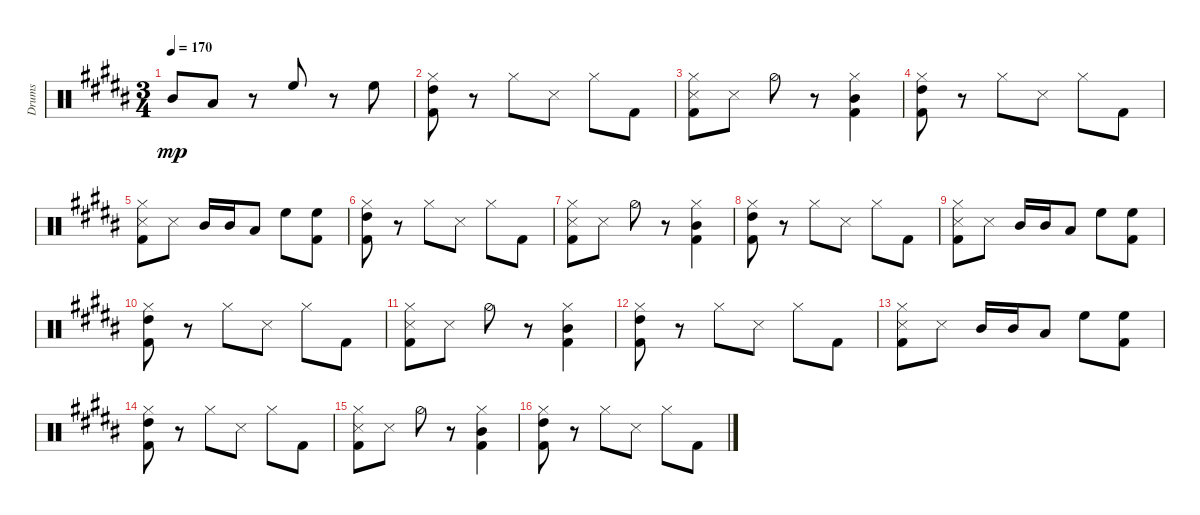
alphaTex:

\defaultSystemsLayout 4
\bracketExtendMode groupsimilarinstruments
\otherSystemsTrackNameOrientation horizontal
\track ("Drumkit" "Drums") {instrument percussion}
\staff {score}
\articulation defaults
\ts (3 4)
\tempo 170
\clef neutral
\ks b "Mid Tom (hit)"{acc bb}.8{dy mp beam Up} "Low Tom (hit)"{acc bb}.8{beam Up}
r.8{beam Up} "High Floor Tom (hit)"{acc bb}.8{beam Down} r.8{beam Down} "High Floor Tom (hit)"{acc bb}.8{beam Down} |
("High Tom (hit)"{acc bb} "Kick (hit) 2"{acc bb} "Hi-Hat (closed)"{acc bb}).8{beam Down} r.8{beam Down} "Hi-Hat (closed)"{acc bb}.8{beam Down} "Snare (side stick) 3"{acc bb}.8{beam Down} "Hi-Hat (closed)"{acc bb}.8{beam Down} "Kick (hit) 2"{acc bb}.8{beam Down} |
("Hi-Hat (closed)"{acc bb} "Snare (side stick) 3"{acc bb} "Kick (hit) 2"{acc bb}).8{beam Down} "Snare (side stick) 3"{acc bb}.8{beam Down} "Hi-Hat (half)"{acc bb}.8{beam Down} r.8{beam Down} ("Hi-Hat (closed)"{acc bb} "Kick (hit) 2"{acc bb} "Mid Tom (hit)"{acc bb}).4{beam Down} |
("High Tom (hit)"{acc bb} "Kick (hit) 2"{acc bb} "Hi-Hat (closed)"{acc bb}).8{beam Down} r.8{beam Down} "Hi-Hat (closed)"{acc bb}.8{beam Down} "Snare (side stick) 3"{acc bb}.8{beam Down} "Hi-Hat (closed)"{acc bb}.8{beam Down} "Kick (hit) 2"{acc bb}.8{beam Down} |
("Hi-Hat (closed)"{acc bb} "Snare (side stick) 3"{acc bb} "Kick (hit) 2"{acc bb}).8{beam Down} "Snare (side stick) 3"{acc bb}.8{beam Down} "Mid Tom (hit)"{acc bb}.16{beam Up} "Mid Tom (hit)"{acc bb}.16{beam Up} "Low Tom (hit)"{acc bb}.8{beam Up} "High Floor Tom (hit)"{acc bb}.8{beam Down} ("High Floor Tom (hit)"{acc bb} "Kick (hit) 2"{acc bb}).8{beam Down} |
("High Tom (hit)"{acc bb} "Kick (hit) 2"{acc bb} "Hi-Hat (closed)"{acc bb}).8{beam Down} r.8{beam Down} "Hi-Hat (closed)"{acc bb}.8{beam Down} "Snare (side stick) 3"{acc bb}.8{beam Down} "Hi-Hat (closed)"{acc bb}.8{beam Down} "Kick (hit) 2"{acc bb}.8{beam Down} |
("Hi-Hat (closed)"{acc bb} "Snare (side stick) 3"{acc bb} "Kick (hit) 2"{acc bb}).8{beam Down} "Snare (side stick) 3"{acc bb}.8{beam Down} "Hi-Hat (half)"{acc bb}.8{beam Down} r.8{beam Down} ("Hi-Hat (closed)"{acc bb} "Kick (hit) 2"{acc bb} "Mid Tom (hit)"{acc bb}).4{beam Down} |
("High Tom (hit)"{acc bb} "Kick (hit) 2"{acc bb} "Hi-Hat (closed)"{acc bb}).8{beam Down} r.8{beam Down} "Hi-Hat (closed)"{acc bb}.8{beam Down} "Snare (side stick) 3"{acc bb}.8{beam Down} "Hi-Hat (closed)"{acc bb}.8{beam Down} "Kick (hit) 2"{acc bb}.8{beam Down} |
("Hi-Hat (closed)"{acc bb} "Snare (side stick) 3"{acc bb} "Kick (hit) 2"{acc bb}).8{beam Down} "Snare (side stick) 3"{acc bb}.8{beam Down} "Mid Tom (hit)"{acc bb}.16{beam Up} "Mid Tom (hit)"{acc bb}.16{beam Up} "Low Tom (hit)"{acc bb}.8{beam Up} "High Floor Tom (hit)"{acc bb}.8{beam Down} ("High Floor Tom (hit)"{acc bb} "Kick (hit) 2"{acc bb}).8{beam Down} |
("High Tom (hit)"{acc bb} "Kick (hit) 2"{acc bb} "Hi-Hat (closed)"{acc bb}).8{beam Down} r.8{beam Down} "Hi-Hat (closed)"{acc bb}.8{beam Down} "Snare (side stick) 3"{acc bb}.8{beam Down} "Hi-Hat (closed)"{acc bb}.8{beam Down} "Kick (hit) 2"{acc bb}.8{beam Down} |
("Hi-Hat (closed)"{acc bb} "Snare (side stick) 3"{acc bb} "Kick (hit) 2"{acc bb}).8{beam Down} "Snare (side stick) 3"{acc bb}.8{beam Down} "Hi-Hat (half)"{acc bb}.8{beam Down} r.8{beam Down} ("Hi-Hat (closed)"{acc bb} "Kick (hit) 2"{acc bb} "Mid Tom (hit)"{acc bb}).4{beam Down} |
("High Tom (hit)"{acc bb} "Kick (hit) 2"{acc bb} "Hi-Hat (closed)"{acc bb}).8{beam Down} r.8{beam Down} "Hi-Hat (closed)"{acc bb}.8{beam Down} "Snare (side stick) 3"{acc bb}.8{beam Down} "Hi-Hat (closed)"{acc bb}.8{beam Down} "Kick (hit) 2"{acc bb}.8{beam Down} |
("Hi-Hat (closed)"{acc bb} "Snare (side stick) 3"{acc bb} "Kick (hit) 2"{acc bb}).8{beam Down} "Snare (side stick) 3"{acc bb}.8{beam Down} "Mid Tom (hit)"{acc bb}.16{beam Up} "Mid Tom (hit)"{acc bb}.16{beam Up} "Low Tom (hit)"{acc bb}.8{beam Up} "High Floor Tom (hit)"{acc bb}.8{beam Down} ("High Floor Tom (hit)"{acc bb} "Kick (hit) 2"{acc bb}).8{beam Down} |
("High Tom (hit)"{acc bb} "Kick (hit) 2"{acc bb} "Hi-Hat (closed)"{acc bb}).8{beam Down} r.8{beam Down} "Hi-Hat (closed)"{acc bb}.8{beam Down} "Snare (side stick) 3"{acc bb}.8{beam Down} "Hi-Hat (closed)"{acc bb}.8{beam Down} "Kick (hit) 2"{acc bb}.8{beam Down} |
("Hi-Hat (closed)"{acc bb} "Snare (side stick) 3"{acc bb} "Kick (hit) 2"{acc bb}).8{beam Down} "Snare (side stick) 3"{acc bb}.8{beam Down} "Hi-Hat (half)"{acc bb}.8{beam Down} r.8{beam Down} ("Hi-Hat (closed)"{acc bb} "Kick (hit) 2"{acc bb} "Mid Tom (hit)"{acc bb}).4{beam Down} |
("High Tom (hit)"{acc bb} "Kick (hit) 2"{acc bb} "Hi-Hat (closed)"{acc bb}).8{beam Down} r.8{beam Down} "Hi-Hat (closed)"{acc bb}.8{beam Down} "Snare (side stick) 3"{acc bb}.8{beam Down} "Hi-Hat (closed)"{acc bb}.8{beam Down} "Kick (hit) 2"{acc bb}.8{beam Down}
